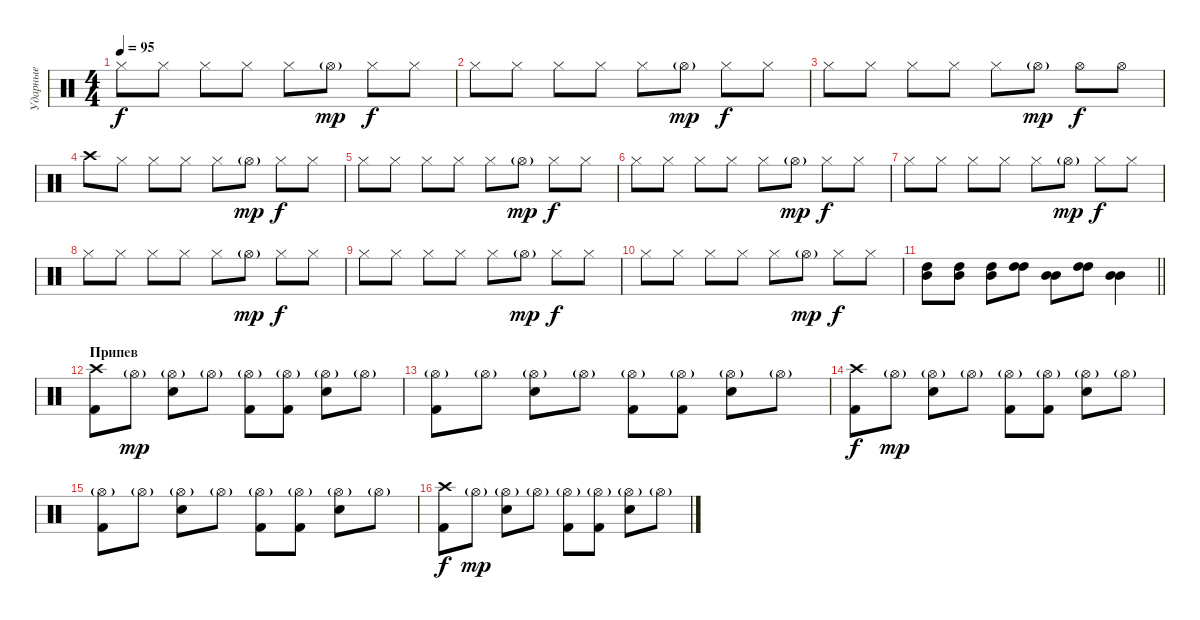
\track ("Ударные" "Ударные") {instrument percussion}
\staff {score}
\articulation defaults
\ts (4 4)
\tempo 95
\clef neutral
\ks c "Hi-Hat (closed)".8{dy f} "Hi-Hat (closed)".8 "Hi-Hat (closed)".8 "Hi-Hat (closed)".8 "Hi-Hat (closed)".8 "Hi-Hat (open)"{g}.8{dy mp} "Hi-Hat (closed)".8{dy f} "Hi-Hat (closed)".8
|
"Hi-Hat (closed)".8 "Hi-Hat (closed)".8 "Hi-Hat (closed)".8 "Hi-Hat (closed)".8 "Hi-Hat (closed)".8 "Hi-Hat (open)"{g}.8{dy mp} "Hi-Hat (closed)".8{dy f} "Hi-Hat (closed)".8 |
"Hi-Hat (closed)".8 "Hi-Hat (closed)".8 "Hi-Hat (closed)".8 "Hi-Hat (closed)".8 "Hi-Hat (closed)".8 "Hi-Hat (open)"{g}.8{dy mp} "Hi-Hat (open)".8{dy f} "Hi-Hat (open)".8 |
"Crash high (hit)".8 "Hi-Hat (closed)".8 "Hi-Hat (closed)".8 "Hi-Hat (closed)".8 "Hi-Hat (closed)".8 "Hi-Hat (open)"{g}.8{dy mp} "Hi-Hat (closed)".8{dy f} "Hi-Hat (closed)".8 |
"Hi-Hat (closed)".8 "Hi-Hat (closed)".8 "Hi-Hat (closed)".8 "Hi-Hat (closed)".8 "Hi-Hat (closed)".8 "Hi-Hat (open)"{g}.8{dy mp} "Hi-Hat (closed)".8{dy f} "Hi-Hat (closed)".8 |
"Hi-Hat (closed)".8 "Hi-Hat (closed)".8 "Hi-Hat (closed)".8 "Hi-Hat (closed)".8 "Hi-Hat (closed)".8 "Hi-Hat (open)"{g}.8{dy mp} "Hi-Hat (closed)".8{dy f} "Hi-Hat (closed)".8 |
"Hi-Hat (closed)".8 "Hi-Hat (closed)".8 "Hi-Hat (closed)".8 "Hi-Hat (closed)".8 "Hi-Hat (closed)".8 "Hi-Hat (open)"{g}.8{dy mp} "Hi-Hat (closed)".8{dy f} "Hi-Hat (closed)".8 |
"Hi-Hat (closed)".8 "Hi-Hat (closed)".8 "Hi-Hat (closed)".8 "Hi-Hat (closed)".8 "Hi-Hat (closed)".8 "Hi-Hat (open)"{g}.8{dy mp} "Hi-Hat (closed)".8{dy f} "Hi-Hat (closed)".8 |
"Hi-Hat (closed)".8 "Hi-Hat (closed)".8 "Hi-Hat (closed)".8 "Hi-Hat (closed)".8 "Hi-Hat (closed)".8 "Hi-Hat (open)"{g}.8{dy mp} "Hi-Hat (closed)".8{dy f} "Hi-Hat (closed)".8 |
"Hi-Hat (closed)".8 "Hi-Hat (closed)".8 "Hi-Hat (closed)".8 "Hi-Hat (closed)".8 "Hi-Hat (closed)".8 "Hi-Hat (open)"{g}.8{dy mp} "Hi-Hat (closed)".8{dy f} "Hi-Hat (closed)".8 |
\barLineRight lightlight
("Mid Tom (hit)" "High Tom (hit)").8 ("Mid Tom (hit)" "High Tom (hit)").8 ("High Tom (hit)" "Mid Tom (hit)").8 ("High Tom (hit)" "High Tom (hit)").8 ("Mid Tom (hit)" "Mid Tom (hit)").8 ("High Tom (hit)" "High Tom (hit)").8 ("Mid Tom (hit)" "Mid Tom (hit)").4 |
\section ("" "Припев")
("Crash high (hit)" "Kick (hit) 2").8 "Hi-Hat (open)"{g}.8{dy mp} ("Hi-Hat (open)"{g} "Snare (hit) 2").8 "Hi-Hat (open)"{g}.8 ("Hi-Hat (open)"{g} "Kick (hit) 2").8 ("Hi-Hat (open)"{g} "Kick (hit) 2").8 ("Hi-Hat (open)"{g} "Snare (hit) 2").8 "Hi-Hat (open)"{g}.8 |
("Hi-Hat (open)"{g} "Kick (hit) 2").8 "Hi-Hat (open)"{g}.8 ("Hi-Hat (open)"{g} "Snare (hit) 2").8 "Hi-Hat (open)"{g}.8 ("Hi-Hat (open)"{g} "Kick (hit) 2").8 ("Hi-Hat (open)"{g} "Kick (hit) 2").8 ("Hi-Hat (open)"{g} "Snare (hit) 2").8 "Hi-Hat (open)"{g}.8 |
("Crash high (hit)" "Kick (hit) 2").8{dy f} "Hi-Hat (open)"{g}.8{dy mp} ("Hi-Hat (open)"{g} "Snare (hit) 2").8 "Hi-Hat (open)"{g}.8 ("Hi-Hat (open)"{g} "Kick (hit) 2").8 ("Hi-Hat (open)"{g} "Kick (hit) 2").8 ("Hi-Hat (open)"{g} "Snare (hit) 2").8 "Hi-Hat (open)"{g}.8 |
("Hi-Hat (open)"{g} "Kick (hit) 2").8 "Hi-Hat (open)"{g}.8 ("Hi-Hat (open)"{g} "Snare (hit) 2").8 "Hi-Hat (open)"{g}.8 ("Hi-Hat (open)"{g} "Kick (hit) 2").8 ("Hi-Hat (open)"{g} "Kick (hit) 2").8 ("Hi-Hat (open)"{g} "Snare (hit) 2").8 "Hi-Hat (open)"{g}.8 |
("Crash high (hit)" "Kick (hit) 2").8{dy f} "Hi-Hat (open)"{g}.8{dy mp} ("Hi-Hat (open)"{g} "Snare (hit) 2").8 "Hi-Hat (open)"{g}.8 ("Hi-Hat (open)"{g} "Kick (hit) 2").8 ("Hi-Hat (open)"{g} "Kick (hit) 2").8 ("Hi-Hat (open)"{g} "Snare (hit) 2").8 "Hi-Hat (open)"{g}.8
